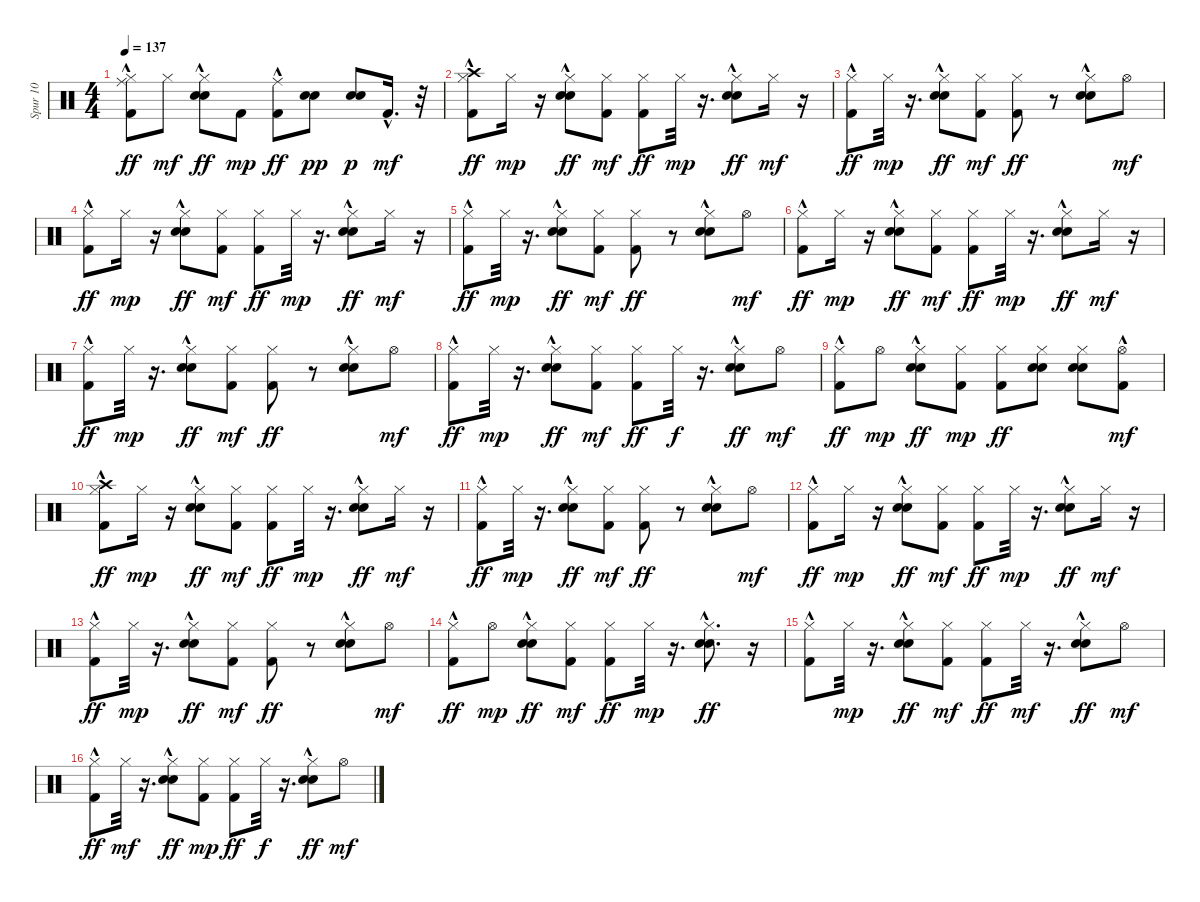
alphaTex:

\track ("Spur 10" "Spur 10") {instrument percussion}
\staff {score}
\articulation defaults
\ts (4 4)
\tempo 137
\clef neutral
\ks c
("Kick (hit) 2"{hac} "Ride (middle)" "Hi-Hat (closed)").8{dy ff} "Hi-Hat (closed)".8{dy mf} ("Electric Snare (hit)"{hac} "Snare (hit) 2"{hac} "Hi-Hat (closed)").8{dy ff} "Kick (hit) 2".8{dy mp} ("Ride (middle)"{hac} "Kick (hit) 2").8{dy ff} ("Electric Snare (hit)" "Snare (hit) 2").8{dy pp} ("Electric Snare (hit)" "Snare (hit) 2").8{dy p} "Kick (hit) 2"{hac}.16{d dy mf} r.32 |
("Kick (hit) 2"{hac} "Hi-Hat (closed)" "Crash high (hit)").8{dy ff} "Hi-Hat (closed)".16{dy mp} r.16 ("Electric Snare (hit)"{hac} "Snare (hit) 2"{hac} "Hi-Hat (closed)").8{dy ff} ("Kick (hit) 2" "Hi-Hat (closed)").8{dy mf} ("Kick (hit) 2" "Hi-Hat (closed)").8{dy ff} "Hi-Hat (closed)".32{dy mp} r.16{d} ("Electric Snare (hit)"{hac} "Snare (hit) 2"{hac} "Hi-Hat (closed)").8{dy ff} "Hi-Hat (closed)".16{dy mf} r.16 |
("Kick (hit) 2"{hac} "Hi-Hat (closed)").8{dy ff} "Hi-Hat (closed)".32{dy mp} r.16{d} ("Electric Snare (hit)"{hac} "Snare (hit) 2"{hac} "Hi-Hat (closed)").8{dy ff} ("Kick (hit) 2" "Hi-Hat (closed)").8{dy mf} ("Kick (hit) 2" "Hi-Hat (closed)").8{dy ff} r.8 ("Electric Snare (hit)"{hac} "Snare (hit) 2"{hac} "Hi-Hat (closed)").8 "Hi-Hat (open)".8{dy mf} |
("Kick (hit) 2"{hac} "Hi-Hat (closed)").8{dy ff} "Hi-Hat (closed)".16{dy mp} r.16 ("Electric Snare (hit)"{hac} "Snare (hit) 2"{hac} "Hi-Hat (closed)").8{dy ff} ("Kick (hit) 2" "Hi-Hat (closed)").8{dy mf} ("Kick (hit) 2" "Hi-Hat (closed)").8{dy ff} "Hi-Hat (closed)".32{dy mp} r.16{d} ("Electric Snare (hit)"{hac} "Snare (hit) 2"{hac} "Hi-Hat (closed)").8{dy ff} "Hi-Hat (closed)".16{dy mf} r.16 |
("Kick (hit) 2"{hac} "Hi-Hat (closed)").8{dy ff} "Hi-Hat (closed)".32{dy mp} r.16{d} ("Electric Snare (hit)"{hac} "Snare (hit) 2"{hac} "Hi-Hat (closed)").8{dy ff} ("Kick (hit) 2" "Hi-Hat (closed)").8{dy mf} ("Kick (hit) 2" "Hi-Hat (closed)").8{dy ff} r.8 ("Electric Snare (hit)"{hac} "Snare (hit) 2"{hac} "Hi-Hat (closed)").8 "Hi-Hat (open)".8{dy mf} |
("Kick (hit) 2"{hac} "Hi-Hat (closed)").8{dy ff} "Hi-Hat (closed)".16{dy mp} r.16 ("Electric Snare (hit)"{hac} "Snare (hit) 2"{hac} "Hi-Hat (closed)").8{dy ff} ("Kick (hit) 2" "Hi-Hat (closed)").8{dy mf} ("Kick (hit) 2" "Hi-Hat (closed)").8{dy ff} "Hi-Hat (closed)".32{dy mp} r.16{d} ("Electric Snare (hit)"{hac} "Snare (hit) 2"{hac} "Hi-Hat (closed)").8{dy ff} "Hi-Hat (closed)".16{dy mf} r.16 |
("Kick (hit) 2"{hac} "Hi-Hat (closed)").8{dy ff} "Hi-Hat (closed)".32{dy mp} r.16{d} ("Electric Snare (hit)"{hac} "Snare (hit) 2"{hac} "Hi-Hat (closed)").8{dy ff} ("Kick (hit) 2" "Hi-Hat (closed)").8{dy mf} ("Kick (hit) 2" "Hi-Hat (closed)").8{dy ff} r.8 ("Electric Snare (hit)"{hac} "Snare (hit) 2"{hac} "Hi-Hat (closed)").8 "Hi-Hat (open)".8{dy mf} |
("Kick (hit) 2"{hac} "Hi-Hat (closed)").8{dy ff} "Hi-Hat (closed)".32{dy mp} r.16{d} ("Electric Snare (hit)"{hac} "Snare (hit) 2"{hac} "Hi-Hat (closed)").8{dy ff} ("Kick (hit) 2" "Hi-Hat (closed)").8{dy mf} ("Kick (hit) 2" "Hi-Hat (closed)").8{dy ff} "Hi-Hat (closed)".32{dy f} r.16{d} ("Electric Snare (hit)"{hac} "Snare (hit) 2"{hac} "Hi-Hat (closed)").8{dy ff} "Hi-Hat (open)".8{dy mf} |
("Kick (hit) 2"{hac} "Hi-Hat (closed)").8{dy ff} "Hi-Hat (open)".8{dy mp} ("Electric Snare (hit)"{hac} "Snare (hit) 2"{hac} "Hi-Hat (closed)").8{dy ff} ("Kick (hit) 2" "Hi-Hat (closed)").8{dy mp} ("Kick (hit) 2" "Hi-Hat (closed)").8{dy ff} ("Electric Snare (hit)" "Snare (hit) 2" "Hi-Hat (closed)").8 ("Electric Snare (hit)" "Snare (hit) 2" "Hi-Hat (closed)").8 ("Kick (hit) 2"{hac} "Hi-Hat (open)").8{dy mf} |
("Kick (hit) 2"{hac} "Hi-Hat (closed)" "Crash high (hit)").8{dy ff} "Hi-Hat (closed)".16{dy mp} r.16 ("Electric Snare (hit)"{hac} "Snare (hit) 2"{hac} "Hi-Hat (closed)").8{dy ff} ("Kick (hit) 2" "Hi-Hat (closed)").8{dy mf} ("Kick (hit) 2" "Hi-Hat (closed)").8{dy ff} "Hi-Hat (closed)".32{dy mp} r.16{d} ("Electric Snare (hit)"{hac} "Snare (hit) 2"{hac} "Hi-Hat (closed)").8{dy ff} "Hi-Hat (closed)".16{dy mf} r.16 |
("Kick (hit) 2"{hac} "Hi-Hat (closed)").8{dy ff} "Hi-Hat (closed)".32{dy mp} r.16{d} ("Electric Snare (hit)"{hac} "Snare (hit) 2"{hac} "Hi-Hat (closed)").8{dy ff} ("Kick (hit) 2" "Hi-Hat (closed)").8{dy mf} ("Kick (hit) 2" "Hi-Hat (closed)").8{dy ff} r.8 ("Electric Snare (hit)"{hac} "Snare (hit) 2"{hac} "Hi-Hat (closed)").8 "Hi-Hat (open)".8{dy mf} |
("Kick (hit) 2"{hac} "Hi-Hat (closed)").8{dy ff} "Hi-Hat (closed)".16{dy mp} r.16 ("Electric Snare (hit)"{hac} "Snare (hit) 2"{hac} "Hi-Hat (closed)").8{dy ff} ("Kick (hit) 2" "Hi-Hat (closed)").8{dy mf} ("Kick (hit) 2" "Hi-Hat (closed)").8{dy ff} "Hi-Hat (closed)".32{dy mp} r.16{d} ("Electric Snare (hit)"{hac} "Snare (hit) 2"{hac} "Hi-Hat (closed)").8{dy ff} "Hi-Hat (closed)".16{dy mf} r.16 |
("Kick (hit) 2"{hac} "Hi-Hat (closed)").8{dy ff} "Hi-Hat (closed)".32{dy mp} r.16{d} ("Electric Snare (hit)"{hac} "Snare (hit) 2"{hac} "Hi-Hat (closed)").8{dy ff} ("Kick (hit) 2" "Hi-Hat (closed)").8{dy mf} ("Kick (hit) 2" "Hi-Hat (closed)").8{dy ff} r.8 ("Electric Snare (hit)"{hac} "Snare (hit) 2"{hac} "Hi-Hat (closed)").8 "Hi-Hat (open)".8{dy mf} |
("Kick (hit) 2"{hac} "Hi-Hat (closed)").8{dy ff} "Hi-Hat (open)".8{dy mp} ("Electric Snare (hit)"{hac} "Snare (hit) 2"{hac} "Hi-Hat (closed)").8{dy ff} ("Kick (hit) 2" "Hi-Hat (closed)").8{dy mf} ("Kick (hit) 2" "Hi-Hat (closed)").8{dy ff} "Hi-Hat (closed)".32{dy mp} r.16{d} ("Electric Snare (hit)"{hac} "Snare (hit) 2"{hac} "Hi-Hat (closed)").8{d dy ff} r.16 |
("Kick (hit) 2"{hac} "Hi-Hat (closed)").8 "Hi-Hat (closed)".32{dy mp} r.16{d} ("Electric Snare (hit)"{hac} "Snare (hit) 2"{hac} "Hi-Hat (closed)").8{dy ff} ("Kick (hit) 2" "Hi-Hat (closed)").8{dy mf} ("Kick (hit) 2" "Hi-Hat (closed)").8{dy ff} "Hi-Hat (closed)".32{dy mf} r.16{d} ("Electric Snare (hit)"{hac} "Snare (hit) 2"{hac} "Hi-Hat (closed)").8{dy ff} "Hi-Hat (open)".8{dy mf} |
("Kick (hit) 2"{hac} "Hi-Hat (closed)").8{dy ff} "Hi-Hat (closed)".32{dy mf} r.16{d} ("Electric Snare (hit)"{hac} "Snare (hit) 2"{hac} "Hi-Hat (closed)").8{dy ff} ("Kick (hit) 2" "Hi-Hat (closed)").8{dy mp} ("Kick (hit) 2" "Hi-Hat (closed)").8{dy ff} "Hi-Hat (closed)".32{dy f} r.16{d} ("Electric Snare (hit)"{hac} "Snare (hit) 2"{hac} "Hi-Hat (closed)").8{dy ff} "Hi-Hat (open)".8{dy mf}
